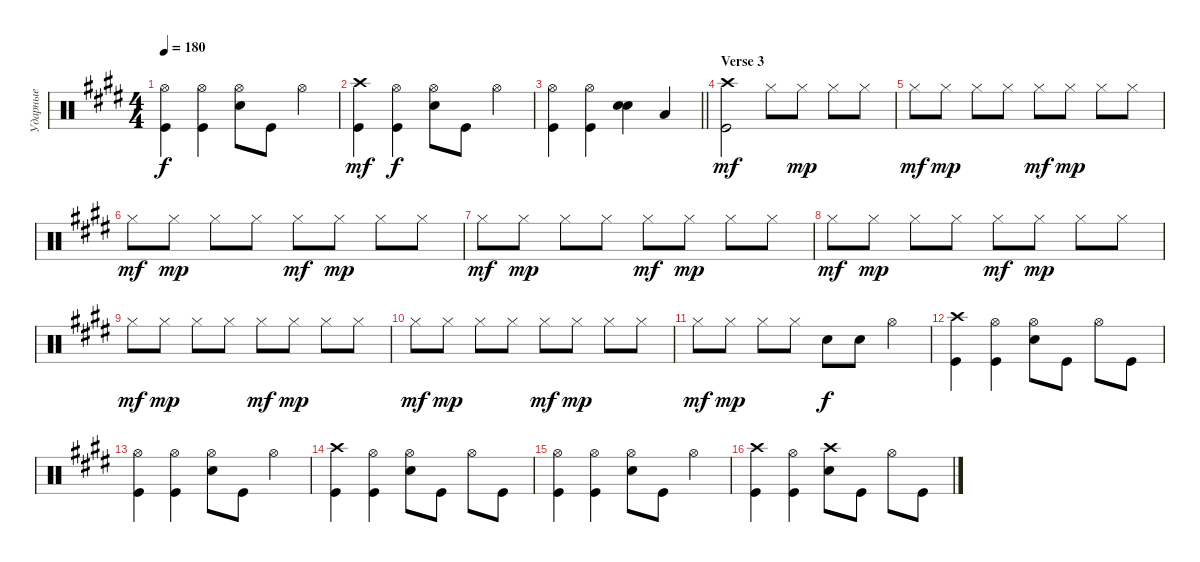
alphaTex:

\track ("Ударные" "Ударные") {instrument percussion}
\staff {score}
\articulation defaults
\ts (4 4)
\tempo 180
\clef neutral
\ks c#minor
("Kick (hit)" "Hi-Hat (open)").4{dy f} ("Hi-Hat (open)" "Kick (hit)").4 ("Snare (hit) 2" "Hi-Hat (open)").8 "Kick (hit)".8 "Hi-Hat (open)".4 |
("Kick (hit)" "Crash high (hit)").4{dy mf} ("Kick (hit)" "Hi-Hat (open)").4{dy f} ("Snare (hit) 2" "Hi-Hat (open)").8 "Kick (hit)".8 "Hi-Hat (open)".4 |
\barLineRight lightlight
("Kick (hit)" "Hi-Hat (open)").4 ("Kick (hit)" "Hi-Hat (open)").4 ("Snare (hit) 2" "Snare (hit) 2").4 "Low Tom (hit)".4 |
\section ("" "Verse 3")
("Crash high (hit)" "Kick (hit)").2{dy mf} "Hi-Hat (closed)".8 "Hi-Hat (closed)".8{dy mp} "Hi-Hat (closed)".8 "Hi-Hat (closed)".8 |
"Hi-Hat (closed)".8{dy mf} "Hi-Hat (closed)".8{dy mp} "Hi-Hat (closed)".8 "Hi-Hat (closed)".8 "Hi-Hat (closed)".8{dy mf} "Hi-Hat (closed)".8{dy mp} "Hi-Hat (closed)".8 "Hi-Hat (closed)".8 |
"Hi-Hat (closed)".8{dy mf} "Hi-Hat (closed)".8{dy mp} "Hi-Hat (closed)".8 "Hi-Hat (closed)".8 "Hi-Hat (closed)".8{dy mf} "Hi-Hat (closed)".8{dy mp} "Hi-Hat (closed)".8 "Hi-Hat (closed)".8 |
"Hi-Hat (closed)".8{dy mf} "Hi-Hat (closed)".8{dy mp} "Hi-Hat (closed)".8 "Hi-Hat (closed)".8 "Hi-Hat (closed)".8{dy mf} "Hi-Hat (closed)".8{dy mp} "Hi-Hat (closed)".8 "Hi-Hat (closed)".8 |
"Hi-Hat (closed)".8{dy mf} "Hi-Hat (closed)".8{dy mp} "Hi-Hat (closed)".8 "Hi-Hat (closed)".8 "Hi-Hat (closed)".8{dy mf} "Hi-Hat (closed)".8{dy mp} "Hi-Hat (closed)".8 "Hi-Hat (closed)".8 |
"Hi-Hat (closed)".8{dy mf} "Hi-Hat (closed)".8{dy mp} "Hi-Hat (closed)".8 "Hi-Hat (closed)".8 "Hi-Hat (closed)".8{dy mf} "Hi-Hat (closed)".8{dy mp} "Hi-Hat (closed)".8 "Hi-Hat (closed)".8 |
"Hi-Hat (closed)".8{dy mf} "Hi-Hat (closed)".8{dy mp} "Hi-Hat (closed)".8 "Hi-Hat (closed)".8 "Hi-Hat (closed)".8{dy mf} "Hi-Hat (closed)".8{dy mp} "Hi-Hat (closed)".8 "Hi-Hat (closed)".8 |
"Hi-Hat (closed)".8{dy mf} "Hi-Hat (closed)".8{dy mp} "Hi-Hat (closed)".8 "Hi-Hat (closed)".8 "Snare (hit) 2".8{dy f volume 15} "Snare (hit) 2".8 "Hi-Hat (open)".4 |
("Kick (hit)" "Crash high (hit)").4 ("Kick (hit)" "Hi-Hat (open)").4 ("Snare (hit) 2" "Hi-Hat (open)").8 "Kick (hit)".8 "Hi-Hat (open)".8 "Kick (hit)".8 |
("Kick (hit)" "Hi-Hat (open)").4 ("Hi-Hat (open)" "Kick (hit)").4 ("Snare (hit) 2" "Hi-Hat (open)").8 "Kick (hit)".8 "Hi-Hat (open)".4 |
("Kick (hit)" "Crash high (hit)").4 ("Kick (hit)" "Hi-Hat (open)").4 ("Snare (hit) 2" "Hi-Hat (open)").8 "Kick (hit)".8 "Hi-Hat (open)".8 "Kick (hit)".8 |
("Kick (hit)" "Hi-Hat (open)").4 ("Hi-Hat (open)" "Kick (hit)").4 ("Snare (hit) 2" "Hi-Hat (open)").8 "Kick (hit)".8 "Hi-Hat (open)".4 |
("Kick (hit)" "Crash high (hit)").4 ("Kick (hit)" "Hi-Hat (open)").4 ("Snare (hit) 2" "Crash high (hit)").8 "Kick (hit)".8 "Hi-Hat (open)".8 "Kick (hit)".8
